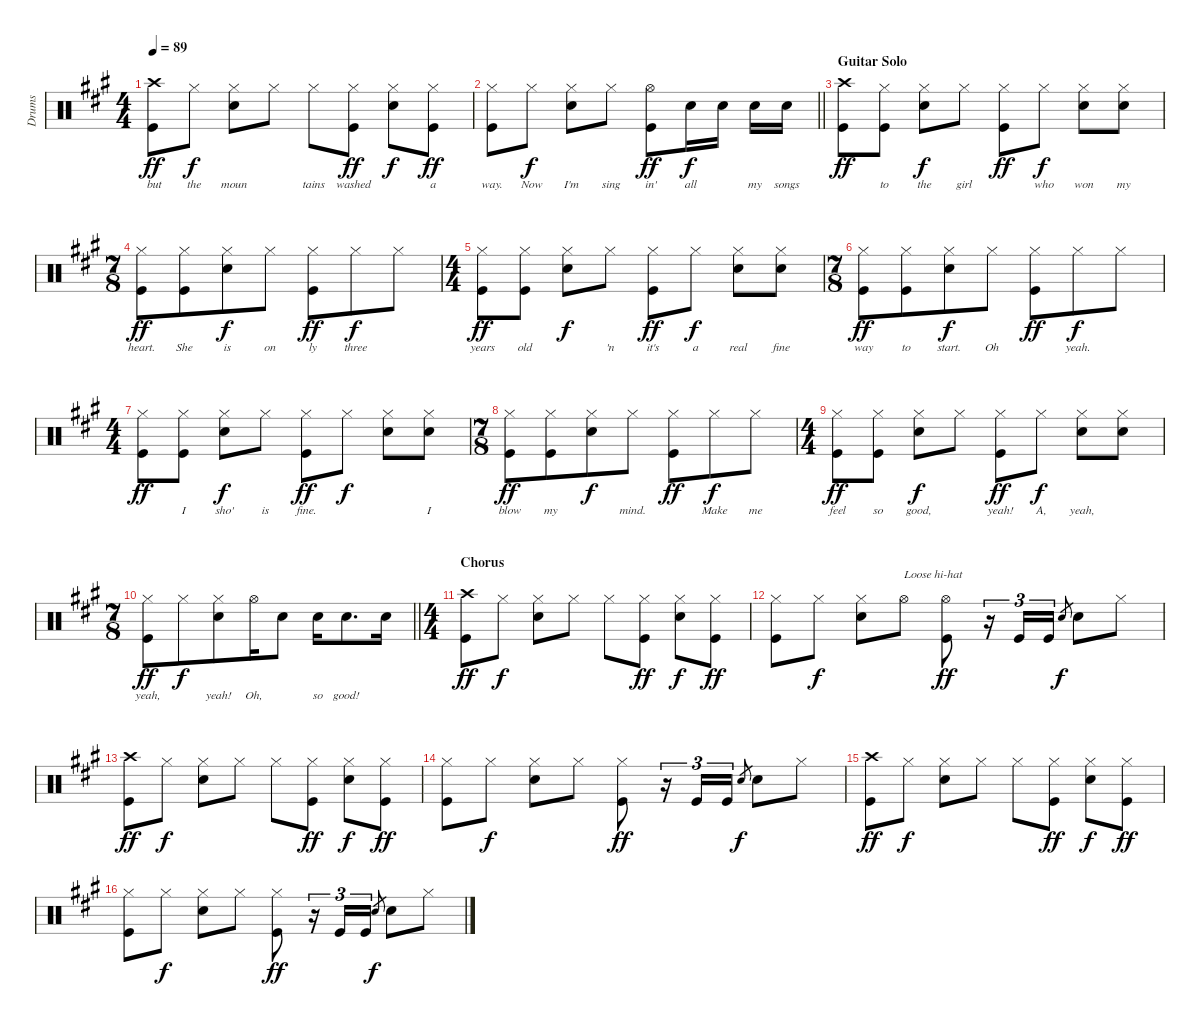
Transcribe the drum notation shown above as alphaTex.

\track ("Drums" "Drums") {instrument percussion}
\staff {score}
\articulation defaults
\ts (4 4)
\tempo 89
\clef neutral
\ks a
("Crash high (hit)" "Kick (hit)").8{lyrics (0 "but") lyrics (1 "") lyrics (2 "") lyrics (3 "") lyrics (4 "") dy ff} "Hi-Hat (closed)".8{lyrics (0 "the") lyrics (1 "") lyrics (2 "") lyrics (3 "") lyrics (4 "") dy f} ("Hi-Hat (closed)" "Snare (hit) 2").8{lyrics (0 "moun") lyrics (1 "") lyrics (2 "") lyrics (3 "") lyrics (4 "")} "Hi-Hat (closed)".8{lyrics (0 "") lyrics (1 "") lyrics (2 "") lyrics (3 "") lyrics (4 "")} "Hi-Hat (closed)".8{lyrics (0 "tains") lyrics (1 "") lyrics (2 "") lyrics (3 "") lyrics (4 "")} ("Hi-Hat (closed)" "Kick (hit)").8{lyrics (0 "washed") lyrics (1 "") lyrics (2 "") lyrics (3 "") lyrics (4 "") dy ff} ("Hi-Hat (closed)" "Snare (hit) 2").8{lyrics (0 "") lyrics (1 "") lyrics (2 "") lyrics (3 "") lyrics (4 "") dy f} ("Hi-Hat (closed)" "Kick (hit)").8{lyrics (0 "a") lyrics (1 "") lyrics (2 "") lyrics (3 "") lyrics (4 "") dy ff} |
\barLineRight lightlight
("Hi-Hat (closed)" "Kick (hit)").8{lyrics (0 "way.") lyrics (1 "") lyrics (2 "") lyrics (3 "") lyrics (4 "")} "Hi-Hat (closed)".8{lyrics (0 "Now") lyrics (1 "") lyrics (2 "") lyrics (3 "") lyrics (4 "") dy f} ("Hi-Hat (closed)" "Snare (hit) 2").8{lyrics (0 "I'm") lyrics (1 "") lyrics (2 "") lyrics (3 "") lyrics (4 "")} "Hi-Hat (closed)".8{lyrics (0 "sing") lyrics (1 "") lyrics (2 "") lyrics (3 "") lyrics (4 "")} ("Hi-Hat (open)" "Kick (hit)").8{lyrics (0 "in'") lyrics (1 "") lyrics (2 "") lyrics (3 "") lyrics (4 "") dy ff} "Snare (hit) 2".16{lyrics (0 "all") lyrics (1 "") lyrics (2 "") lyrics (3 "") lyrics (4 "") dy f} "Snare (hit) 2".16{lyrics (0 "") lyrics (1 "") lyrics (2 "") lyrics (3 "") lyrics (4 "")} "Snare (hit) 2".16{lyrics (0 "my") lyrics (1 "") lyrics (2 "") lyrics (3 "") lyrics (4 "")} "Snare (hit) 2".16{lyrics (0 "songs") lyrics (1 "") lyrics (2 "") lyrics (3 "") lyrics (4 "")} |
\section ("" "Guitar Solo")
("Crash high (hit)" "Kick (hit)").8{lyrics (0 "") lyrics (1 "") lyrics (2 "") lyrics (3 "") lyrics (4 "") dy ff} ("Hi-Hat (closed)" "Kick (hit)").8{lyrics (0 "to") lyrics (1 "") lyrics (2 "") lyrics (3 "") lyrics (4 "")} ("Hi-Hat (closed)" "Snare (hit) 2").8{lyrics (0 "the") lyrics (1 "") lyrics (2 "") lyrics (3 "") lyrics (4 "") dy f} "Hi-Hat (closed)".8{lyrics (0 "girl") lyrics (1 "") lyrics (2 "") lyrics (3 "") lyrics (4 "")} ("Hi-Hat (closed)" "Kick (hit)").8{lyrics (0 "") lyrics (1 "") lyrics (2 "") lyrics (3 "") lyrics (4 "") dy ff} "Hi-Hat (closed)".8{lyrics (0 "who") lyrics (1 "") lyrics (2 "") lyrics (3 "") lyrics (4 "") dy f} ("Hi-Hat (closed)" "Snare (hit) 2").8{lyrics (0 "won") lyrics (1 "") lyrics (2 "") lyrics (3 "") lyrics (4 "")} ("Hi-Hat (closed)" "Snare (hit) 2").8{lyrics (0 "my") lyrics (1 "") lyrics (2 "") lyrics (3 "") lyrics (4 "")} |
\ts (7 8)
("Hi-Hat (closed)" "Kick (hit)").8{lyrics (0 "heart.") lyrics (1 "") lyrics (2 "") lyrics (3 "") lyrics (4 "") dy ff} ("Hi-Hat (closed)" "Kick (hit)").8{lyrics (0 "She") lyrics (1 "") lyrics (2 "") lyrics (3 "") lyrics (4 "")} ("Hi-Hat (closed)" "Snare (hit) 2").8{lyrics (0 "is") lyrics (1 "") lyrics (2 "") lyrics (3 "") lyrics (4 "") dy f} "Hi-Hat (closed)".8{lyrics (0 "on") lyrics (1 "") lyrics (2 "") lyrics (3 "") lyrics (4 "")} ("Hi-Hat (closed)" "Kick (hit)").8{lyrics (0 "ly") lyrics (1 "") lyrics (2 "") lyrics (3 "") lyrics (4 "") dy ff} "Hi-Hat (closed)".8{lyrics (0 "three") lyrics (1 "") lyrics (2 "") lyrics (3 "") lyrics (4 "") dy f} "Hi-Hat (closed)".8{lyrics (0 "") lyrics (1 "") lyrics (2 "") lyrics (3 "") lyrics (4 "")} |
\ts (4 4)
("Hi-Hat (closed)" "Kick (hit)").8{lyrics (0 "years") lyrics (1 "") lyrics (2 "") lyrics (3 "") lyrics (4 "") dy ff} ("Hi-Hat (closed)" "Kick (hit)").8{lyrics (0 "old") lyrics (1 "") lyrics (2 "") lyrics (3 "") lyrics (4 "")} ("Hi-Hat (closed)" "Snare (hit) 2").8{lyrics (0 "") lyrics (1 "") lyrics (2 "") lyrics (3 "") lyrics (4 "") dy f} "Hi-Hat (closed)".8{lyrics (0 "'n") lyrics (1 "") lyrics (2 "") lyrics (3 "") lyrics (4 "")} ("Hi-Hat (closed)" "Kick (hit)").8{lyrics (0 "it's") lyrics (1 "") lyrics (2 "") lyrics (3 "") lyrics (4 "") dy ff} "Hi-Hat (closed)".8{lyrics (0 "a") lyrics (1 "") lyrics (2 "") lyrics (3 "") lyrics (4 "") dy f} ("Hi-Hat (closed)" "Snare (hit) 2").8{lyrics (0 "real") lyrics (1 "") lyrics (2 "") lyrics (3 "") lyrics (4 "")} ("Hi-Hat (closed)" "Snare (hit) 2").8{lyrics (0 "fine") lyrics (1 "") lyrics (2 "") lyrics (3 "") lyrics (4 "")} |
\ts (7 8)
("Hi-Hat (closed)" "Kick (hit)").8{lyrics (0 "way") lyrics (1 "") lyrics (2 "") lyrics (3 "") lyrics (4 "") dy ff} ("Hi-Hat (closed)" "Kick (hit)").8{lyrics (0 "to") lyrics (1 "") lyrics (2 "") lyrics (3 "") lyrics (4 "")} ("Hi-Hat (closed)" "Snare (hit) 2").8{lyrics (0 "start.") lyrics (1 "") lyrics (2 "") lyrics (3 "") lyrics (4 "") dy f} "Hi-Hat (closed)".8{lyrics (0 "Oh") lyrics (1 "") lyrics (2 "") lyrics (3 "") lyrics (4 "")} ("Hi-Hat (closed)" "Kick (hit)").8{lyrics (0 "") lyrics (1 "") lyrics (2 "") lyrics (3 "") lyrics (4 "") dy ff} "Hi-Hat (closed)".8{lyrics (0 "yeah.") lyrics (1 "") lyrics (2 "") lyrics (3 "") lyrics (4 "") dy f} "Hi-Hat (closed)".8{lyrics (0 "") lyrics (1 "") lyrics (2 "") lyrics (3 "") lyrics (4 "")} |
\ts (4 4)
("Hi-Hat (closed)" "Kick (hit)").8{lyrics (0 "") lyrics (1 "") lyrics (2 "") lyrics (3 "") lyrics (4 "") dy ff} ("Hi-Hat (closed)" "Kick (hit)").8{lyrics (0 "I") lyrics (1 "") lyrics (2 "") lyrics (3 "") lyrics (4 "")} ("Hi-Hat (closed)" "Snare (hit) 2").8{lyrics (0 "sho'") lyrics (1 "") lyrics (2 "") lyrics (3 "") lyrics (4 "") dy f} "Hi-Hat (closed)".8{lyrics (0 "is") lyrics (1 "") lyrics (2 "") lyrics (3 "") lyrics (4 "")} ("Hi-Hat (closed)" "Kick (hit)").8{lyrics (0 "fine.") lyrics (1 "") lyrics (2 "") lyrics (3 "") lyrics (4 "") dy ff} "Hi-Hat (closed)".8{lyrics (0 "") lyrics (1 "") lyrics (2 "") lyrics (3 "") lyrics (4 "") dy f} ("Hi-Hat (closed)" "Snare (hit) 2").8{lyrics (0 "") lyrics (1 "") lyrics (2 "") lyrics (3 "") lyrics (4 "")} ("Hi-Hat (closed)" "Snare (hit) 2").8{lyrics (0 "I") lyrics (1 "") lyrics (2 "") lyrics (3 "") lyrics (4 "")} |
\ts (7 8)
("Hi-Hat (closed)" "Kick (hit)").8{lyrics (0 "blow") lyrics (1 "") lyrics (2 "") lyrics (3 "") lyrics (4 "") dy ff} ("Hi-Hat (closed)" "Kick (hit)").8{lyrics (0 "my") lyrics (1 "") lyrics (2 "") lyrics (3 "") lyrics (4 "")} ("Hi-Hat (closed)" "Snare (hit) 2").8{lyrics (0 "") lyrics (1 "") lyrics (2 "") lyrics (3 "") lyrics (4 "") dy f} "Hi-Hat (closed)".8{lyrics (0 "mind.") lyrics (1 "") lyrics (2 "") lyrics (3 "") lyrics (4 "")} ("Hi-Hat (closed)" "Kick (hit)").8{lyrics (0 "") lyrics (1 "") lyrics (2 "") lyrics (3 "") lyrics (4 "") dy ff} "Hi-Hat (closed)".8{lyrics (0 "Make") lyrics (1 "") lyrics (2 "") lyrics (3 "") lyrics (4 "") dy f} "Hi-Hat (closed)".8{lyrics (0 "me") lyrics (1 "") lyrics (2 "") lyrics (3 "") lyrics (4 "")} |
\ts (4 4)
("Hi-Hat (closed)" "Kick (hit)").8{lyrics (0 "feel") lyrics (1 "") lyrics (2 "") lyrics (3 "") lyrics (4 "") dy ff} ("Hi-Hat (closed)" "Kick (hit)").8{lyrics (0 "so") lyrics (1 "") lyrics (2 "") lyrics (3 "") lyrics (4 "")} ("Hi-Hat (closed)" "Snare (hit) 2").8{lyrics (0 "good,") lyrics (1 "") lyrics (2 "") lyrics (3 "") lyrics (4 "") dy f} "Hi-Hat (closed)".8{lyrics (0 "") lyrics (1 "") lyrics (2 "") lyrics (3 "") lyrics (4 "")} ("Hi-Hat (closed)" "Kick (hit)").8{lyrics (0 "yeah!") lyrics (1 "") lyrics (2 "") lyrics (3 "") lyrics (4 "") dy ff} "Hi-Hat (closed)".8{lyrics (0 "A,") lyrics (1 "") lyrics (2 "") lyrics (3 "") lyrics (4 "") dy f} ("Hi-Hat (closed)" "Snare (hit) 2").8{lyrics (0 "yeah,") lyrics (1 "") lyrics (2 "") lyrics (3 "") lyrics (4 "")} ("Hi-Hat (closed)" "Snare (hit) 2").8{lyrics (0 "") lyrics (1 "") lyrics (2 "") lyrics (3 "") lyrics (4 "")} |
\ts (7 8)
\barLineRight lightlight
("Hi-Hat (closed)" "Kick (hit)").8{lyrics (0 "yeah,") lyrics (1 "") lyrics (2 "") lyrics (3 "") lyrics (4 "") dy ff} "Hi-Hat (closed)".8{lyrics (0 "") lyrics (1 "") lyrics (2 "") lyrics (3 "") lyrics (4 "") dy f} ("Hi-Hat (closed)" "Snare (hit) 2").8{lyrics (0 "yeah!") lyrics (1 "") lyrics (2 "") lyrics (3 "") lyrics (4 "")} "Hi-Hat (open)".16{lyrics (0 "Oh,") lyrics (1 "") lyrics (2 "") lyrics (3 "") lyrics (4 "")} "Snare (hit) 2".8{lyrics (0 "") lyrics (1 "") lyrics (2 "") lyrics (3 "") lyrics (4 "")} "Snare (hit) 2".16{lyrics (0 "so") lyrics (1 "") lyrics (2 "") lyrics (3 "") lyrics (4 "")} "Snare (hit) 2".8{d lyrics (0 "good!") lyrics (1 "") lyrics (2 "") lyrics (3 "") lyrics (4 "")} "Snare (hit) 2".16 |
\ts (4 4)
\section ("" "Chorus")
("Crash high (hit)" "Kick (hit)").8{dy ff} "Hi-Hat (closed)".8{dy f} ("Hi-Hat (closed)" "Snare (hit) 2").8 "Hi-Hat (closed)".8 "Hi-Hat (closed)".8 ("Hi-Hat (closed)" "Kick (hit)").8{dy ff} ("Hi-Hat (closed)" "Snare (hit) 2").8{dy f} ("Hi-Hat (closed)" "Kick (hit)").8{dy ff} |
("Hi-Hat (closed)" "Kick (hit)").8 "Hi-Hat (closed)".8{dy f} ("Hi-Hat (closed)" "Snare (hit) 2").8 "Hi-Hat (open)".8{txt "Loose hi-hat"} ("Hi-Hat (open)" "Kick (hit)").8{dy ff} r.16{tu (3 2)} "Kick (hit)".16{tu (3 2)} "Kick (hit)".16{tu (3 2)} "Snare (hit) 2".8{gr dy f} "Snare (hit) 2".8 "Hi-Hat (closed)".8 |
("Crash high (hit)" "Kick (hit)").8{dy ff} "Hi-Hat (closed)".8{dy f} ("Hi-Hat (closed)" "Snare (hit) 2").8 "Hi-Hat (closed)".8 "Hi-Hat (closed)".8 ("Hi-Hat (closed)" "Kick (hit)").8{dy ff} ("Hi-Hat (closed)" "Snare (hit) 2").8{dy f} ("Hi-Hat (closed)" "Kick (hit)").8{dy ff} |
("Hi-Hat (closed)" "Kick (hit)").8 "Hi-Hat (closed)".8{dy f} ("Hi-Hat (closed)" "Snare (hit) 2").8 "Hi-Hat (closed)".8 ("Hi-Hat (closed)" "Kick (hit)").8{dy ff} r.16{tu (3 2)} "Kick (hit)".16{tu (3 2)} "Kick (hit)".16{tu (3 2)} "Snare (hit) 2".8{gr dy f} "Snare (hit) 2".8 "Hi-Hat (closed)".8 |
("Crash high (hit)" "Kick (hit)").8{dy ff} "Hi-Hat (closed)".8{dy f} ("Hi-Hat (closed)" "Snare (hit) 2").8 "Hi-Hat (closed)".8 "Hi-Hat (closed)".8 ("Hi-Hat (closed)" "Kick (hit)").8{dy ff} ("Hi-Hat (closed)" "Snare (hit) 2").8{dy f} ("Hi-Hat (closed)" "Kick (hit)").8{dy ff} |
("Hi-Hat (closed)" "Kick (hit)").8 "Hi-Hat (closed)".8{dy f} ("Hi-Hat (closed)" "Snare (hit) 2").8 "Hi-Hat (closed)".8 ("Hi-Hat (closed)" "Kick (hit)").8{dy ff} r.16{tu (3 2)} "Kick (hit)".16{tu (3 2)} "Kick (hit)".16{tu (3 2)} "Snare (hit) 2".8{gr dy f} "Snare (hit) 2".8 "Hi-Hat (closed)".8
